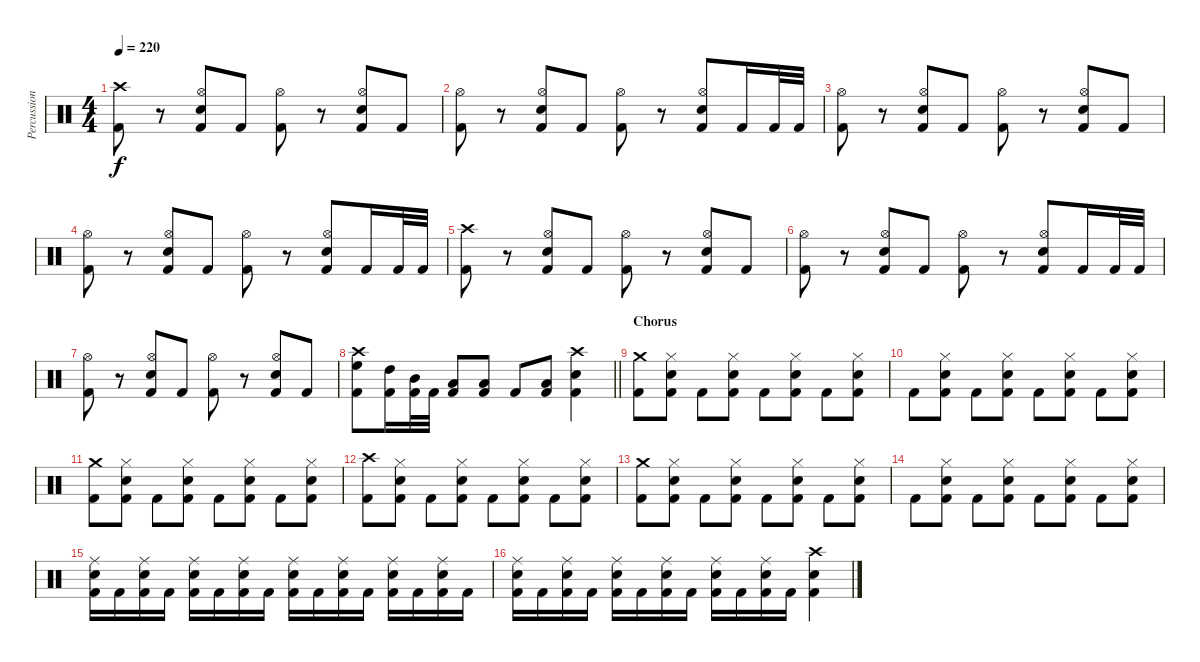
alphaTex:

\track ("Percussion" "Percussion") {instrument percussion}
\staff {score}
\articulation defaults
\ts (4 4)
\tempo 220
\clef neutral
\ks c
("Crash high (hit)" "Kick (hit) 2").8{dy f} r.8 ("Hi-Hat (open)" "Electric Snare (hit)" "Kick (hit) 2").8 "Kick (hit) 2".8 ("Hi-Hat (open)" "Kick (hit) 2").8 r.8 ("Hi-Hat (open)" "Electric Snare (hit)" "Kick (hit) 2").8 "Kick (hit) 2".8 |
("Hi-Hat (open)" "Kick (hit) 2").8 r.8 ("Hi-Hat (open)" "Electric Snare (hit)" "Kick (hit) 2").8 "Kick (hit) 2".8 ("Hi-Hat (open)" "Kick (hit) 2").8 r.8 ("Hi-Hat (open)" "Electric Snare (hit)" "Kick (hit) 2").8 "Kick (hit) 2".16 "Kick (hit) 2".32 "Kick (hit) 2".32 |
("Hi-Hat (open)" "Kick (hit) 2").8 r.8 ("Hi-Hat (open)" "Electric Snare (hit)" "Kick (hit) 2").8 "Kick (hit) 2".8 ("Hi-Hat (open)" "Kick (hit) 2").8 r.8 ("Hi-Hat (open)" "Electric Snare (hit)" "Kick (hit) 2").8 "Kick (hit) 2".8 |
("Hi-Hat (open)" "Kick (hit) 2").8 r.8 ("Hi-Hat (open)" "Electric Snare (hit)" "Kick (hit) 2").8 "Kick (hit) 2".8 ("Hi-Hat (open)" "Kick (hit) 2").8 r.8 ("Hi-Hat (open)" "Electric Snare (hit)" "Kick (hit) 2").8 "Kick (hit) 2".16 "Kick (hit) 2".32 "Kick (hit) 2".32 |
("Crash high (hit)" "Kick (hit) 2").8 r.8 ("Hi-Hat (open)" "Electric Snare (hit)" "Kick (hit) 2").8 "Kick (hit) 2".8 ("Hi-Hat (open)" "Kick (hit) 2").8 r.8 ("Hi-Hat (open)" "Electric Snare (hit)" "Kick (hit) 2").8 "Kick (hit) 2".8 |
("Hi-Hat (open)" "Kick (hit) 2").8 r.8 ("Hi-Hat (open)" "Electric Snare (hit)" "Kick (hit) 2").8 "Kick (hit) 2".8 ("Hi-Hat (open)" "Kick (hit) 2").8 r.8 ("Hi-Hat (open)" "Electric Snare (hit)" "Kick (hit) 2").8 "Kick (hit) 2".16 "Kick (hit) 2".32 "Kick (hit) 2".32 |
("Hi-Hat (open)" "Kick (hit) 2").8 r.8 ("Hi-Hat (open)" "Electric Snare (hit)" "Kick (hit) 2").8 "Kick (hit) 2".8 ("Hi-Hat (open)" "Kick (hit) 2").8 r.8 ("Hi-Hat (open)" "Electric Snare (hit)" "Kick (hit) 2").8 "Kick (hit) 2".8 |
\barLineRight lightlight
("Crash high (hit)" "High Floor Tom (hit)" "Kick (hit) 2").8 ("High Tom (hit)" "Kick (hit) 2").16 ("Mid Tom (hit)" "Kick (hit) 2").32 "Kick (hit) 2".32 ("Low Tom (hit)" "Kick (hit) 2").8 ("Low Floor Tom (hit)" "Kick (hit) 2").8 "Kick (hit) 2".8 ("Low Floor Tom (hit)" "Kick (hit) 2").8 ("Crash high (hit)" "Electric Snare (hit)" "Kick (hit) 2").4 |
\section ("" "Chorus")
("Crash medium (hit)" "Kick (hit) 2").8 ("Hi-Hat (closed)" "Electric Snare (hit)" "Kick (hit) 2").8 "Kick (hit) 2".8 ("Hi-Hat (closed)" "Electric Snare (hit)" "Kick (hit) 2").8 "Kick (hit) 2".8 ("Hi-Hat (closed)" "Electric Snare (hit)" "Kick (hit) 2").8 "Kick (hit) 2".8 ("Hi-Hat (closed)" "Electric Snare (hit)" "Kick (hit) 2").8 |
"Kick (hit) 2".8 ("Hi-Hat (closed)" "Electric Snare (hit)" "Kick (hit) 2").8 "Kick (hit) 2".8 ("Hi-Hat (closed)" "Electric Snare (hit)" "Kick (hit) 2").8 "Kick (hit) 2".8 ("Hi-Hat (closed)" "Electric Snare (hit)" "Kick (hit) 2").8 "Kick (hit) 2".8 ("Hi-Hat (closed)" "Electric Snare (hit)" "Kick (hit) 2").8 |
("Crash medium (hit)" "Kick (hit) 2").8 ("Hi-Hat (closed)" "Electric Snare (hit)" "Kick (hit) 2").8 "Kick (hit) 2".8 ("Hi-Hat (closed)" "Electric Snare (hit)" "Kick (hit) 2").8 "Kick (hit) 2".8 ("Hi-Hat (closed)" "Electric Snare (hit)" "Kick (hit) 2").8 "Kick (hit) 2".8 ("Hi-Hat (closed)" "Electric Snare (hit)" "Kick (hit) 2").8 |
("Crash high (hit)" "Kick (hit) 2").8 ("Hi-Hat (closed)" "Electric Snare (hit)" "Kick (hit) 2").8 "Kick (hit) 2".8 ("Hi-Hat (closed)" "Electric Snare (hit)" "Kick (hit) 2").8 "Kick (hit) 2".8 ("Hi-Hat (closed)" "Electric Snare (hit)" "Kick (hit) 2").8 "Kick (hit) 2".8 ("Hi-Hat (closed)" "Electric Snare (hit)" "Kick (hit) 2").8 |
("Crash medium (hit)" "Kick (hit) 2").8 ("Hi-Hat (closed)" "Electric Snare (hit)" "Kick (hit) 2").8 "Kick (hit) 2".8 ("Hi-Hat (closed)" "Electric Snare (hit)" "Kick (hit) 2").8 "Kick (hit) 2".8 ("Hi-Hat (closed)" "Electric Snare (hit)" "Kick (hit) 2").8 "Kick (hit) 2".8 ("Hi-Hat (closed)" "Electric Snare (hit)" "Kick (hit) 2").8 |
"Kick (hit) 2".8 ("Hi-Hat (closed)" "Electric Snare (hit)" "Kick (hit) 2").8 "Kick (hit) 2".8 ("Hi-Hat (closed)" "Electric Snare (hit)" "Kick (hit) 2").8 "Kick (hit) 2".8 ("Hi-Hat (closed)" "Electric Snare (hit)" "Kick (hit) 2").8 "Kick (hit) 2".8 ("Hi-Hat (closed)" "Electric Snare (hit)" "Kick (hit) 2").8 |
("Ride (middle)" "Electric Snare (hit)" "Kick (hit) 2").16 "Kick (hit) 2".16 ("Ride (middle)" "Electric Snare (hit)" "Kick (hit) 2").16 "Kick (hit) 2".16 ("Ride (middle)" "Electric Snare (hit)" "Kick (hit) 2").16 "Kick (hit) 2".16 ("Ride (middle)" "Electric Snare (hit)" "Kick (hit) 2").16 "Kick (hit) 2".16 ("Ride (middle)" "Electric Snare (hit)" "Kick (hit) 2").16 "Kick (hit) 2".16 ("Ride (middle)" "Electric Snare (hit)" "Kick (hit) 2").16 "Kick (hit) 2".16 ("Ride (middle)" "Electric Snare (hit)" "Kick (hit) 2").16 "Kick (hit) 2".16 ("Ride (middle)" "Electric Snare (hit)" "Kick (hit) 2").16 "Kick (hit) 2".16 |
("Ride (middle)" "Electric Snare (hit)" "Kick (hit) 2").16 "Kick (hit) 2".16 ("Ride (middle)" "Electric Snare (hit)" "Kick (hit) 2").16 "Kick (hit) 2".16 ("Ride (middle)" "Electric Snare (hit)" "Kick (hit) 2").16 "Kick (hit) 2".16 ("Ride (middle)" "Electric Snare (hit)" "Kick (hit) 2").16 "Kick (hit) 2".16 ("Ride (middle)" "Electric Snare (hit)" "Kick (hit) 2").16 "Kick (hit) 2".16 ("Ride (middle)" "Electric Snare (hit)" "Kick (hit) 2").16 "Kick (hit) 2".16 ("Crash high (hit)" "Electric Snare (hit)" "Kick (hit) 2").4
